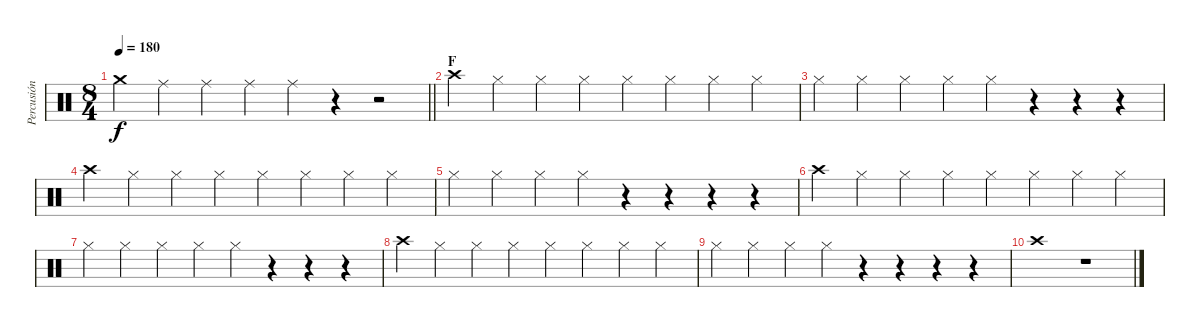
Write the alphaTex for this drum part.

\track ("Percusión" "Percusión") {instrument percussion}
\staff {score}
\articulation defaults
\ts (8 4)
\tempo 180
\clef neutral
\barLineRight lightlight
\ks c "Crash medium (hit)".4{dy f} "Ride (middle)".4 "Ride (middle)".4 "Ride (middle)".4 "Ride (middle)".4
r.4 r.2 |
\section ("" "F")
"Crash high (hit)".4 "Hi-Hat (closed)".4 "Hi-Hat (closed)".4 "Hi-Hat (closed)".4 "Hi-Hat (closed)".4 "Hi-Hat (closed)".4 "Hi-Hat (closed)".4 "Hi-Hat (closed)".4 |
"Hi-Hat (closed)".4 "Hi-Hat (closed)".4 "Hi-Hat (closed)".4 "Hi-Hat (closed)".4 "Hi-Hat (closed)".4 r.4 r.4 r.4 |
"Crash high (hit)".4 "Hi-Hat (closed)".4 "Hi-Hat (closed)".4 "Hi-Hat (closed)".4 "Hi-Hat (closed)".4 "Hi-Hat (closed)".4 "Hi-Hat (closed)".4 "Hi-Hat (closed)".4 |
"Hi-Hat (closed)".4 "Hi-Hat (closed)".4 "Hi-Hat (closed)".4 "Hi-Hat (closed)".4 r.4 r.4 r.4 r.4 |
"Crash high (hit)".4 "Hi-Hat (closed)".4 "Hi-Hat (closed)".4 "Hi-Hat (closed)".4 "Hi-Hat (closed)".4 "Hi-Hat (closed)".4 "Hi-Hat (closed)".4 "Hi-Hat (closed)".4 |
"Hi-Hat (closed)".4 "Hi-Hat (closed)".4 "Hi-Hat (closed)".4 "Hi-Hat (closed)".4 "Hi-Hat (closed)".4 r.4 r.4 r.4 |
"Crash high (hit)".4 "Hi-Hat (closed)".4 "Hi-Hat (closed)".4 "Hi-Hat (closed)".4 "Hi-Hat (closed)".4 "Hi-Hat (closed)".4 "Hi-Hat (closed)".4 "Hi-Hat (closed)".4 |
"Hi-Hat (closed)".4 "Hi-Hat (closed)".4 "Hi-Hat (closed)".4 "Hi-Hat (closed)".4 r.4 r.4 r.4 r.4 |
"Crash high (hit)".1 r.1
